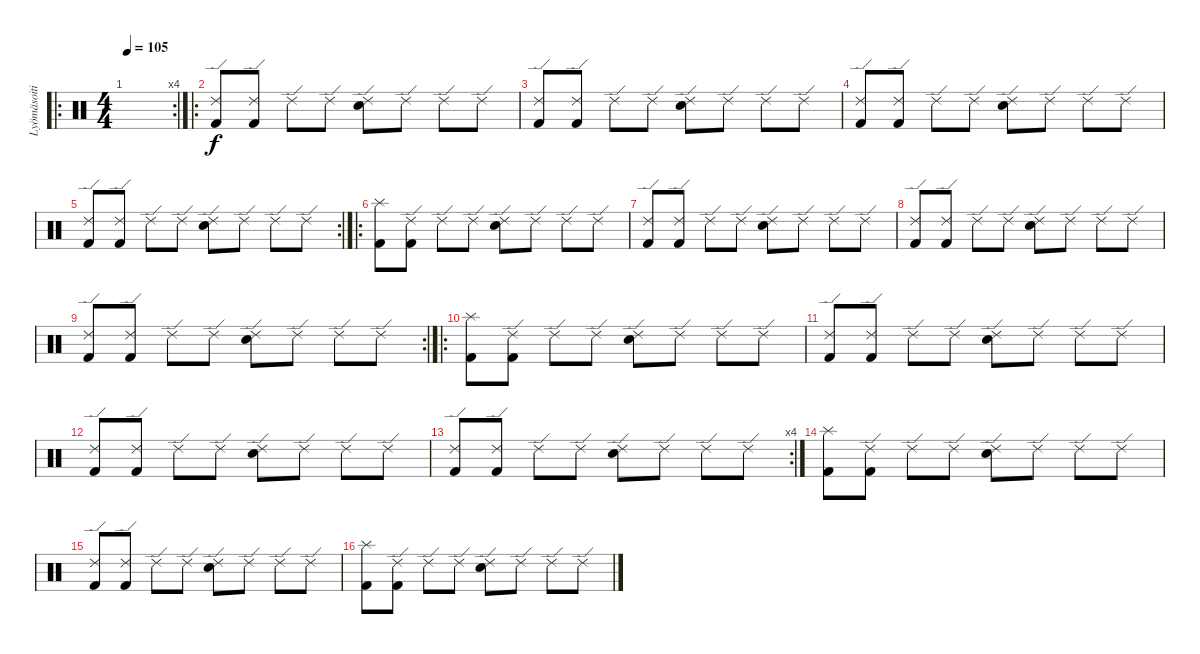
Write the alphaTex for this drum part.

\track ("Lyömäsoitin" "Lyömäsoiti") {instrument percussion}
\staff {score}
\articulation defaults
\ro
\rc 4
\ts (4 4)
\tempo 105
\clef neutral
\ks c
|
\ro
("Kick (hit) 2" "Ride (edge) 2").8 ("Kick (hit) 2" "Ride (edge) 2").8 "Ride (edge) 2".8 "Ride (edge) 2".8 ("Electric Snare (hit)" "Ride (edge) 2").8 "Ride (edge) 2".8 "Ride (edge) 2".8 "Ride (edge) 2".8 |
("Kick (hit) 2" "Ride (edge) 2").8 ("Kick (hit) 2" "Ride (edge) 2").8 "Ride (edge) 2".8 "Ride (edge) 2".8 ("Electric Snare (hit)" "Ride (edge) 2").8 "Ride (edge) 2".8 "Ride (edge) 2".8 "Ride (edge) 2".8 |
("Kick (hit) 2" "Ride (edge) 2").8 ("Kick (hit) 2" "Ride (edge) 2").8 "Ride (edge) 2".8 "Ride (edge) 2".8 ("Electric Snare (hit)" "Ride (edge) 2").8 "Ride (edge) 2".8 "Ride (edge) 2".8 "Ride (edge) 2".8 |
\rc 2
("Kick (hit) 2" "Ride (edge) 2").8 ("Kick (hit) 2" "Ride (edge) 2").8 "Ride (edge) 2".8 "Ride (edge) 2".8 ("Electric Snare (hit)" "Ride (edge) 2").8 "Ride (edge) 2".8 "Ride (edge) 2".8 "Ride (edge) 2".8 |
\ro
("Kick (hit) 2" "Splash (hit)").8 ("Kick (hit) 2" "Ride (edge) 2").8 "Ride (edge) 2".8 "Ride (edge) 2".8 ("Electric Snare (hit)" "Ride (edge) 2").8 "Ride (edge) 2".8 "Ride (edge) 2".8 "Ride (edge) 2".8 |
("Kick (hit) 2" "Ride (edge) 2").8 ("Kick (hit) 2" "Ride (edge) 2").8 "Ride (edge) 2".8 "Ride (edge) 2".8 ("Electric Snare (hit)" "Ride (edge) 2").8 "Ride (edge) 2".8 "Ride (edge) 2".8 "Ride (edge) 2".8 |
("Kick (hit) 2" "Ride (edge) 2").8 ("Kick (hit) 2" "Ride (edge) 2").8 "Ride (edge) 2".8 "Ride (edge) 2".8 ("Electric Snare (hit)" "Ride (edge) 2").8 "Ride (edge) 2".8 "Ride (edge) 2".8 "Ride (edge) 2".8 |
\rc 2
("Kick (hit) 2" "Ride (edge) 2").8 ("Kick (hit) 2" "Ride (edge) 2").8 "Ride (edge) 2".8 "Ride (edge) 2".8 ("Electric Snare (hit)" "Ride (edge) 2").8 "Ride (edge) 2".8 "Ride (edge) 2".8 "Ride (edge) 2".8 |
\ro
("Kick (hit) 2" "Splash (hit)").8 ("Kick (hit) 2" "Ride (edge) 2").8 "Ride (edge) 2".8 "Ride (edge) 2".8 ("Electric Snare (hit)" "Ride (edge) 2").8 "Ride (edge) 2".8 "Ride (edge) 2".8 "Ride (edge) 2".8 |
("Kick (hit) 2" "Ride (edge) 2").8 ("Kick (hit) 2" "Ride (edge) 2").8 "Ride (edge) 2".8 "Ride (edge) 2".8 ("Electric Snare (hit)" "Ride (edge) 2").8 "Ride (edge) 2".8 "Ride (edge) 2".8 "Ride (edge) 2".8 |
("Kick (hit) 2" "Ride (edge) 2").8 ("Kick (hit) 2" "Ride (edge) 2").8 "Ride (edge) 2".8 "Ride (edge) 2".8 ("Electric Snare (hit)" "Ride (edge) 2").8 "Ride (edge) 2".8 "Ride (edge) 2".8 "Ride (edge) 2".8 |
\rc 4
("Kick (hit) 2" "Ride (edge) 2").8 ("Kick (hit) 2" "Ride (edge) 2").8 "Ride (edge) 2".8 "Ride (edge) 2".8 ("Electric Snare (hit)" "Ride (edge) 2").8 "Ride (edge) 2".8 "Ride (edge) 2".8 "Ride (edge) 2".8 |
("Kick (hit) 2" "Splash (hit)").8 ("Kick (hit) 2" "Ride (edge) 2").8 "Ride (edge) 2".8 "Ride (edge) 2".8 ("Electric Snare (hit)" "Ride (edge) 2").8 "Ride (edge) 2".8 "Ride (edge) 2".8 "Ride (edge) 2".8 |
("Kick (hit) 2" "Ride (edge) 2").8 ("Kick (hit) 2" "Ride (edge) 2").8 "Ride (edge) 2".8 "Ride (edge) 2".8 ("Electric Snare (hit)" "Ride (edge) 2").8 "Ride (edge) 2".8 "Ride (edge) 2".8 "Ride (edge) 2".8 |
("Kick (hit) 2" "Splash (hit)").8 ("Kick (hit) 2" "Ride (edge) 2").8 "Ride (edge) 2".8 "Ride (edge) 2".8 ("Electric Snare (hit)" "Ride (edge) 2").8 "Ride (edge) 2".8 "Ride (edge) 2".8 "Ride (edge) 2".8
